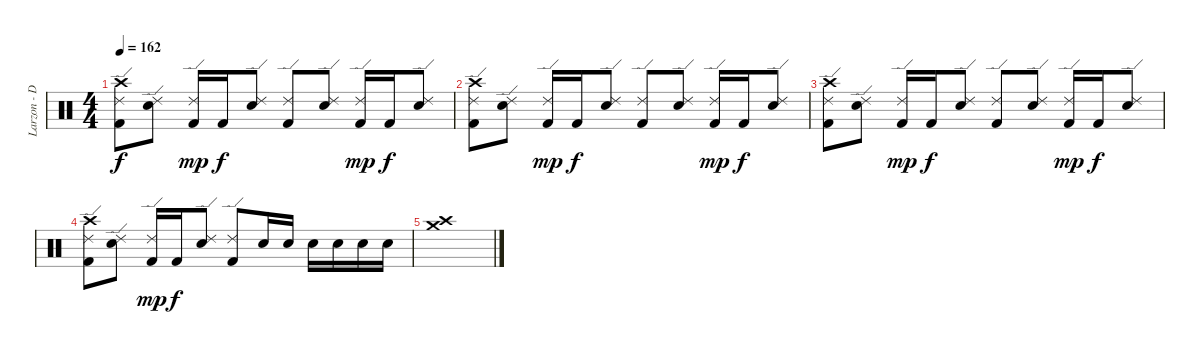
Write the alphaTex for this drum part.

\track ("Larzon - Drums" "Larzon - D") {instrument percussion}
\staff {score}
\articulation defaults
\ts (4 4)
\tempo 162
\clef neutral
\ks c
("Kick (hit) 2" "Ride (edge) 2" "Crash high (hit)").8{dy f} ("Snare (hit) 2" "Ride (edge) 2").8 ("Kick (hit) 2" "Ride (edge) 2").16{dy mp} "Kick (hit) 2".16{dy f} ("Snare (hit) 2" "Ride (edge) 2").8 ("Kick (hit) 2" "Ride (edge) 2").8 ("Snare (hit) 2" "Ride (edge) 2").8 ("Kick (hit) 2" "Ride (edge) 2").16{dy mp} "Kick (hit) 2".16{dy f} ("Snare (hit) 2" "Ride (edge) 2").8 |
("Kick (hit) 2" "Ride (edge) 2" "Crash high (hit)").8 ("Snare (hit) 2" "Ride (edge) 2").8 ("Kick (hit) 2" "Ride (edge) 2").16{dy mp} "Kick (hit) 2".16{dy f} ("Snare (hit) 2" "Ride (edge) 2").8 ("Kick (hit) 2" "Ride (edge) 2").8 ("Snare (hit) 2" "Ride (edge) 2").8 ("Kick (hit) 2" "Ride (edge) 2").16{dy mp} "Kick (hit) 2".16{dy f} ("Snare (hit) 2" "Ride (edge) 2").8 |
("Kick (hit) 2" "Ride (edge) 2" "Crash high (hit)").8 ("Snare (hit) 2" "Ride (edge) 2").8 ("Kick (hit) 2" "Ride (edge) 2").16{dy mp} "Kick (hit) 2".16{dy f} ("Snare (hit) 2" "Ride (edge) 2").8 ("Kick (hit) 2" "Ride (edge) 2").8 ("Snare (hit) 2" "Ride (edge) 2").8 ("Kick (hit) 2" "Ride (edge) 2").16{dy mp} "Kick (hit) 2".16{dy f} ("Snare (hit) 2" "Ride (edge) 2").8 |
("Kick (hit) 2" "Ride (edge) 2" "Crash high (hit)").8 ("Snare (hit) 2" "Ride (edge) 2").8 ("Kick (hit) 2" "Ride (edge) 2").16{dy mp} "Kick (hit) 2".16{dy f} ("Snare (hit) 2" "Ride (edge) 2").8 ("Kick (hit) 2" "Ride (edge) 2").8 "Snare (hit) 2".16 "Snare (hit) 2".16 "Snare (hit) 2".16 "Snare (hit) 2".16 "Snare (hit) 2".16 "Snare (hit) 2".16 |
("Crash high (hit)" "Crash medium (hit)").1
